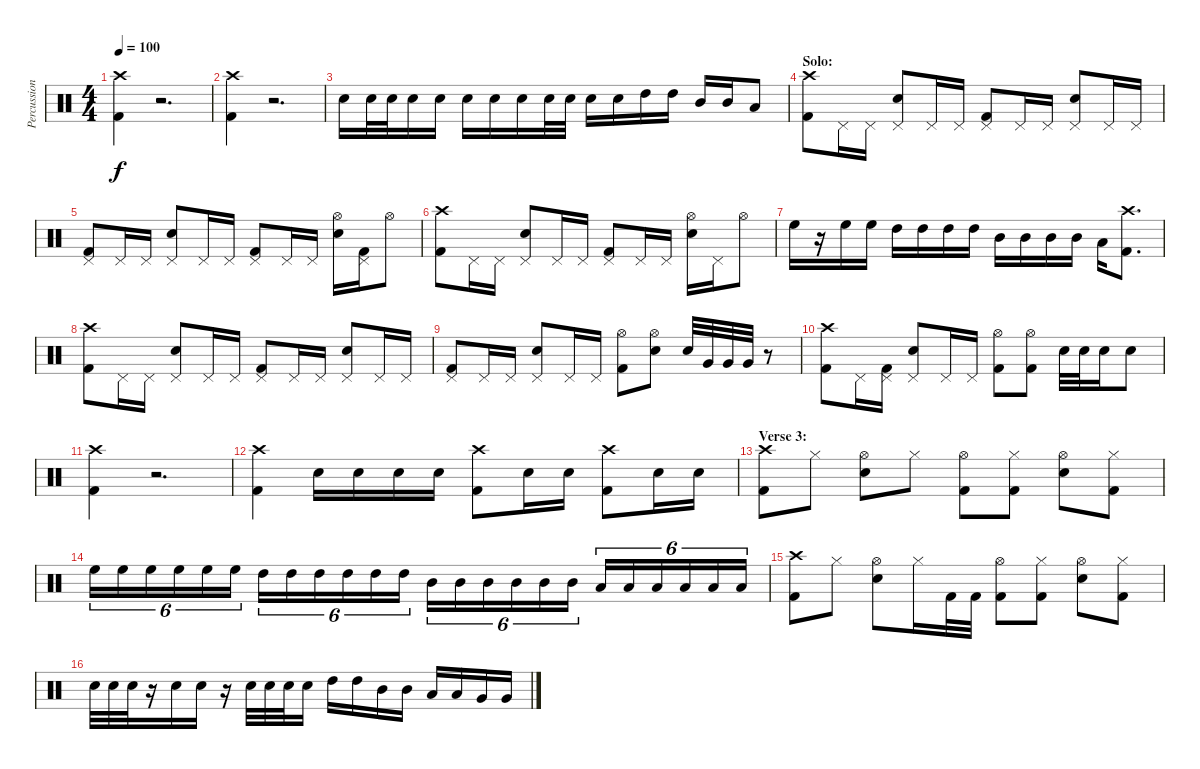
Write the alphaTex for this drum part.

\track ("Percussion" "Percussion") {instrument percussion}
\staff {score}
\articulation defaults
\ts (4 4)
\tempo 100
\clef neutral
\ks c
("Crash high (hit)" "Kick (hit) 2").4{dy f} r.2{d} |
("Crash high (hit)" "Kick (hit) 2").4 r.2{d} |
"Electric Snare (hit)".16 "Electric Snare (hit)".32 "Electric Snare (hit)".32 "Electric Snare (hit)".16 "Electric Snare (hit)".16 "Electric Snare (hit)".16 "Electric Snare (hit)".16 "Electric Snare (hit)".16 "Electric Snare (hit)".32 "Electric Snare (hit)".32 "Electric Snare (hit)".16 "Electric Snare (hit)".16 "High Tom (hit)".16 "High Tom (hit)".16 "Mid Tom (hit)".16 "Mid Tom (hit)".16 "Low Tom (hit)".8 |
\section ("" "Solo:")
("Crash high (hit)" "Kick (hit) 2").8 "Pedal Hi-Hat (hit)".16 "Pedal Hi-Hat (hit)".16 ("Pedal Hi-Hat (hit)" "Electric Snare (hit)").8 "Pedal Hi-Hat (hit)".16 "Pedal Hi-Hat (hit)".16 ("Pedal Hi-Hat (hit)" "Kick (hit) 2").8 "Pedal Hi-Hat (hit)".16 "Pedal Hi-Hat (hit)".16 ("Pedal Hi-Hat (hit)" "Electric Snare (hit)").8 "Pedal Hi-Hat (hit)".16 "Pedal Hi-Hat (hit)".16 |
("Pedal Hi-Hat (hit)" "Kick (hit) 2").8 "Pedal Hi-Hat (hit)".16 "Pedal Hi-Hat (hit)".16 ("Pedal Hi-Hat (hit)" "Electric Snare (hit)").8 "Pedal Hi-Hat (hit)".16 "Pedal Hi-Hat (hit)".16 ("Pedal Hi-Hat (hit)" "Kick (hit) 2").8 "Pedal Hi-Hat (hit)".16 "Pedal Hi-Hat (hit)".16 ("Hi-Hat (open)" "Electric Snare (hit)").16 ("Pedal Hi-Hat (hit)" "Kick (hit) 2").16 "Hi-Hat (open)".8 |
("Crash high (hit)" "Kick (hit) 2").8 "Pedal Hi-Hat (hit)".16 "Pedal Hi-Hat (hit)".16 ("Pedal Hi-Hat (hit)" "Electric Snare (hit)").8 "Pedal Hi-Hat (hit)".16 "Pedal Hi-Hat (hit)".16 ("Pedal Hi-Hat (hit)" "Kick (hit) 2").8 "Pedal Hi-Hat (hit)".16 "Pedal Hi-Hat (hit)".16 ("Hi-Hat (open)" "Electric Snare (hit)").16 "Pedal Hi-Hat (hit)".16 "Hi-Hat (open)".8 |
"High Floor Tom (hit)".16 r.16 "High Floor Tom (hit)".16 "High Floor Tom (hit)".16 "High Tom (hit)".16 "High Tom (hit)".16 "High Tom (hit)".16 "High Tom (hit)".16 "Mid Tom (hit)".16 "Mid Tom (hit)".16 "Mid Tom (hit)".16 "Mid Tom (hit)".16 "Low Tom (hit)".16 ("Crash high (hit)" "Kick (hit) 2").8{d} |
("Crash high (hit)" "Kick (hit) 2").8 "Pedal Hi-Hat (hit)".16 "Pedal Hi-Hat (hit)".16 ("Pedal Hi-Hat (hit)" "Electric Snare (hit)").8 "Pedal Hi-Hat (hit)".16 "Pedal Hi-Hat (hit)".16 ("Pedal Hi-Hat (hit)" "Kick (hit) 2").8 "Pedal Hi-Hat (hit)".16 "Pedal Hi-Hat (hit)".16 ("Pedal Hi-Hat (hit)" "Electric Snare (hit)").8 "Pedal Hi-Hat (hit)".16 "Pedal Hi-Hat (hit)".16 |
("Pedal Hi-Hat (hit)" "Kick (hit) 2").8 "Pedal Hi-Hat (hit)".16 "Pedal Hi-Hat (hit)".16 ("Pedal Hi-Hat (hit)" "Electric Snare (hit)").8 "Pedal Hi-Hat (hit)".16 "Pedal Hi-Hat (hit)".16 ("Hi-Hat (open)" "Kick (hit) 2").8 ("Hi-Hat (open)" "Electric Snare (hit)").8 "Electric Snare (hit)".32 "Very Low Tom (hit)".32 "Very Low Tom (hit)".32 "Very Low Tom (hit)".32 r.8 |
("Crash high (hit)" "Kick (hit) 2").8 "Pedal Hi-Hat (hit)".16 ("Pedal Hi-Hat (hit)" "Kick (hit) 2").16 ("Pedal Hi-Hat (hit)" "Electric Snare (hit)").8 "Pedal Hi-Hat (hit)".16 "Pedal Hi-Hat (hit)".16 ("Hi-Hat (open)" "Kick (hit) 2").8 ("Hi-Hat (open)" "Kick (hit) 2").8 "Electric Snare (hit)".32 "Electric Snare (hit)".32 "Electric Snare (hit)".16 "Electric Snare (hit)".8 |
("Crash high (hit)" "Kick (hit) 2").4 r.2{d} |
("Crash high (hit)" "Kick (hit) 2").4 "Electric Snare (hit)".16 "Electric Snare (hit)".16 "Electric Snare (hit)".16 "Electric Snare (hit)".16 ("Crash high (hit)" "Kick (hit) 2").8 "Electric Snare (hit)".16 "Electric Snare (hit)".16 ("Crash high (hit)" "Kick (hit) 2").8 "Electric Snare (hit)".16 "Electric Snare (hit)".16 |
\section ("" "Verse 3:")
("Crash high (hit)" "Kick (hit) 2").8 "Hi-Hat (closed)".8 ("Hi-Hat (open)" "Electric Snare (hit)").8 "Hi-Hat (closed)".8 ("Hi-Hat (open)" "Kick (hit) 2").8 ("Hi-Hat (closed)" "Kick (hit) 2").8 ("Hi-Hat (open)" "Electric Snare (hit)").8 ("Hi-Hat (closed)" "Kick (hit) 2").8 |
"High Floor Tom (hit)".16{tu (6 4)} "High Floor Tom (hit)".16{tu (6 4)} "High Floor Tom (hit)".16{tu (6 4)} "High Floor Tom (hit)".16{tu (6 4)} "High Floor Tom (hit)".16{tu (6 4)} "High Floor Tom (hit)".16{tu (6 4)} "High Tom (hit)".16{tu (6 4)} "High Tom (hit)".16{tu (6 4)} "High Tom (hit)".16{tu (6 4)} "High Tom (hit)".16{tu (6 4)} "High Tom (hit)".16{tu (6 4)} "High Tom (hit)".16{tu (6 4)} "Mid Tom (hit)".16{tu (6 4)} "Mid Tom (hit)".16{tu (6 4)} "Mid Tom (hit)".16{tu (6 4)} "Mid Tom (hit)".16{tu (6 4)} "Mid Tom (hit)".16{tu (6 4)} "Mid Tom (hit)".16{tu (6 4)} "Low Tom (hit)".16{tu (6 4)} "Low Tom (hit)".16{tu (6 4)} "Low Tom (hit)".16{tu (6 4)} "Low Tom (hit)".16{tu (6 4)} "Low Tom (hit)".16{tu (6 4)} "Low Tom (hit)".16{tu (6 4)} |
("Crash high (hit)" "Kick (hit) 2").8 "Hi-Hat (closed)".8 ("Hi-Hat (open)" "Electric Snare (hit)").8 "Hi-Hat (closed)".16 "Kick (hit) 2".32 "Kick (hit) 2".32 ("Hi-Hat (open)" "Kick (hit) 2").8 ("Hi-Hat (closed)" "Kick (hit) 2").8 ("Hi-Hat (open)" "Electric Snare (hit)").8 ("Hi-Hat (closed)" "Kick (hit) 2").8 |
"Electric Snare (hit)".32 "Electric Snare (hit)".32 "Electric Snare (hit)".32 r.16 "Electric Snare (hit)".16 "Electric Snare (hit)".16 r.16 "Electric Snare (hit)".32 "Electric Snare (hit)".32 "Electric Snare (hit)".32 "Electric Snare (hit)".16 "High Tom (hit)".16 "High Tom (hit)".16 "Mid Tom (hit)".16 "Mid Tom (hit)".16 "Low Tom (hit)".16 "Low Tom (hit)".16 "Very Low Tom (hit)".16 "Very Low Tom (hit)".16
